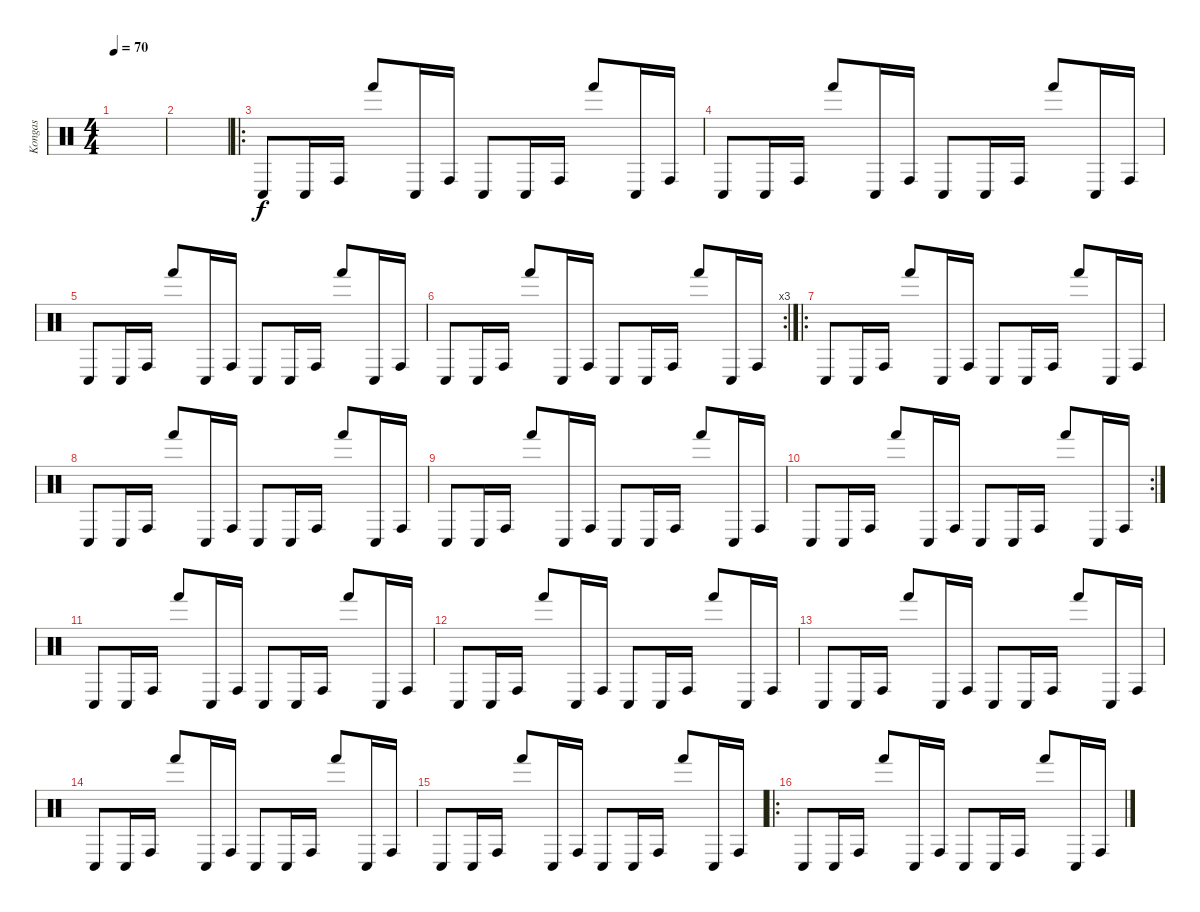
\track ("Kongas" "Kongas") {instrument percussion}
\staff {score}
\articulation defaults
\ts (4 4)
\tempo 70
\clef neutral
\ks c
|
|
\ro "Conga low (hit)".8 "Conga low (hit)".16 "Conga high (hit)".16 "Hand (hit)".8 "Conga low (hit)".16 "Conga high (hit)".16 "Conga low (hit)".8 "Conga low (hit)".16 "Conga high (hit)".16 "Hand (hit)".8 "Conga low (hit)".16 "Conga high (hit)".16
|
"Conga low (hit)".8 "Conga low (hit)".16 "Conga high (hit)".16 "Hand (hit)".8 "Conga low (hit)".16 "Conga high (hit)".16 "Conga low (hit)".8 "Conga low (hit)".16 "Conga high (hit)".16 "Hand (hit)".8 "Conga low (hit)".16 "Conga high (hit)".16 |
"Conga low (hit)".8 "Conga low (hit)".16 "Conga high (hit)".16 "Hand (hit)".8 "Conga low (hit)".16 "Conga high (hit)".16 "Conga low (hit)".8 "Conga low (hit)".16 "Conga high (hit)".16 "Hand (hit)".8 "Conga low (hit)".16 "Conga high (hit)".16 |
\rc 3 "Conga low (hit)".8 "Conga low (hit)".16 "Conga high (hit)".16 "Hand (hit)".8 "Conga low (hit)".16 "Conga high (hit)".16 "Conga low (hit)".8 "Conga low (hit)".16 "Conga high (hit)".16 "Hand (hit)".8 "Conga low (hit)".16 "Conga high (hit)".16
|
\ro "Conga low (hit)".8 "Conga low (hit)".16 "Conga high (hit)".16 "Hand (hit)".8 "Conga low (hit)".16 "Conga high (hit)".16 "Conga low (hit)".8 "Conga low (hit)".16 "Conga high (hit)".16 "Hand (hit)".8 "Conga low (hit)".16 "Conga high (hit)".16
|
"Conga low (hit)".8 "Conga low (hit)".16 "Conga high (hit)".16 "Hand (hit)".8 "Conga low (hit)".16 "Conga high (hit)".16 "Conga low (hit)".8 "Conga low (hit)".16 "Conga high (hit)".16 "Hand (hit)".8 "Conga low (hit)".16 "Conga high (hit)".16 |
"Conga low (hit)".8 "Conga low (hit)".16 "Conga high (hit)".16 "Hand (hit)".8 "Conga low (hit)".16 "Conga high (hit)".16 "Conga low (hit)".8 "Conga low (hit)".16 "Conga high (hit)".16 "Hand (hit)".8 "Conga low (hit)".16 "Conga high (hit)".16 |
\rc 2 "Conga low (hit)".8 "Conga low (hit)".16 "Conga high (hit)".16 "Hand (hit)".8 "Conga low (hit)".16 "Conga high (hit)".16 "Conga low (hit)".8 "Conga low (hit)".16 "Conga high (hit)".16 "Hand (hit)".8 "Conga low (hit)".16 "Conga high (hit)".16
|
"Conga low (hit)".8 "Conga low (hit)".16 "Conga high (hit)".16 "Hand (hit)".8 "Conga low (hit)".16 "Conga high (hit)".16 "Conga low (hit)".8 "Conga low (hit)".16 "Conga high (hit)".16 "Hand (hit)".8 "Conga low (hit)".16 "Conga high (hit)".16 |
"Conga low (hit)".8 "Conga low (hit)".16 "Conga high (hit)".16 "Hand (hit)".8 "Conga low (hit)".16 "Conga high (hit)".16 "Conga low (hit)".8 "Conga low (hit)".16 "Conga high (hit)".16 "Hand (hit)".8 "Conga low (hit)".16 "Conga high (hit)".16 |
"Conga low (hit)".8 "Conga low (hit)".16 "Conga high (hit)".16 "Hand (hit)".8 "Conga low (hit)".16 "Conga high (hit)".16 "Conga low (hit)".8 "Conga low (hit)".16 "Conga high (hit)".16 "Hand (hit)".8 "Conga low (hit)".16 "Conga high (hit)".16 |
"Conga low (hit)".8 "Conga low (hit)".16 "Conga high (hit)".16 "Hand (hit)".8 "Conga low (hit)".16 "Conga high (hit)".16 "Conga low (hit)".8 "Conga low (hit)".16 "Conga high (hit)".16 "Hand (hit)".8 "Conga low (hit)".16 "Conga high (hit)".16 |
"Conga low (hit)".8 "Conga low (hit)".16 "Conga high (hit)".16 "Hand (hit)".8 "Conga low (hit)".16 "Conga high (hit)".16 "Conga low (hit)".8 "Conga low (hit)".16 "Conga high (hit)".16 "Hand (hit)".8 "Conga low (hit)".16 "Conga high (hit)".16 |
\ro "Conga low (hit)".8 "Conga low (hit)".16 "Conga high (hit)".16 "Hand (hit)".8 "Conga low (hit)".16 "Conga high (hit)".16 "Conga low (hit)".8 "Conga low (hit)".16 "Conga high (hit)".16 "Hand (hit)".8 "Conga low (hit)".16 "Conga high (hit)".16
